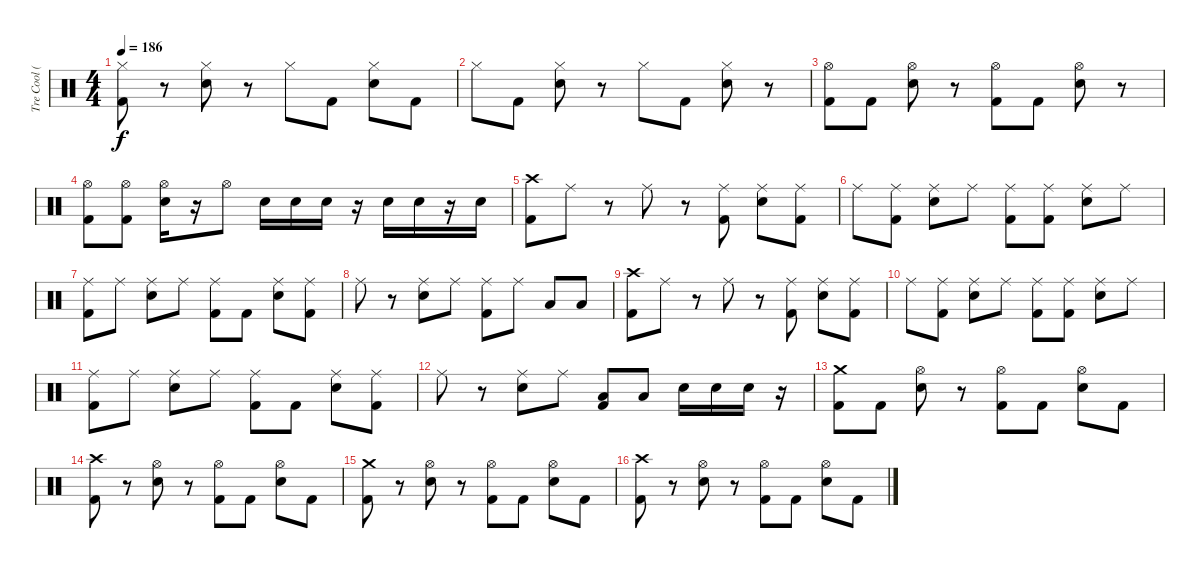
\track ("Tre Cool (Drums)" "Tre Cool (") {instrument percussion}
\staff {score}
\articulation defaults
\ts (4 4)
\tempo 186
\clef neutral
\ks c
("Hi-Hat (closed)" "Kick (hit) 2").8{dy f} r.8 ("Hi-Hat (closed)" "Snare (hit) 2").8 r.8 "Hi-Hat (closed)".8 "Kick (hit) 2".8 ("Hi-Hat (closed)" "Snare (hit) 2").8 "Kick (hit) 2".8 |
"Hi-Hat (closed)".8 "Kick (hit) 2".8 ("Hi-Hat (closed)" "Snare (hit) 2").8 r.8 "Hi-Hat (closed)".8 "Kick (hit) 2".8 ("Hi-Hat (closed)" "Snare (hit) 2").8 r.8 |
("Kick (hit) 2" "Hi-Hat (open)").8 "Kick (hit) 2".8 ("Snare (hit) 2" "Hi-Hat (open)").8 r.8 ("Kick (hit) 2" "Hi-Hat (open)").8 "Kick (hit) 2".8 ("Snare (hit) 2" "Hi-Hat (open)").8 r.8 |
("Kick (hit) 2" "Hi-Hat (open)").8 ("Kick (hit) 2" "Hi-Hat (open)").8 ("Snare (hit) 2" "Hi-Hat (open)").16 r.16 "Hi-Hat (open)".8 "Snare (hit) 2".16 "Snare (hit) 2".16 "Snare (hit) 2".16 r.16 "Snare (hit) 2".16 "Snare (hit) 2".16 r.16 "Snare (hit) 2".16 |
("Kick (hit) 2" "Crash high (hit)").8 "Ride (middle)".8 r.8 "Ride (middle)".8 r.8 ("Kick (hit) 2" "Ride (middle)").8 ("Snare (hit) 2" "Ride (middle)").8 ("Kick (hit) 2" "Ride (middle)").8 |
"Ride (middle)".8 ("Kick (hit) 2" "Ride (middle)").8 ("Snare (hit) 2" "Ride (middle)").8 "Ride (middle)".8 ("Kick (hit) 2" "Ride (middle)").8 ("Kick (hit) 2" "Ride (middle)").8 ("Snare (hit) 2" "Ride (middle)").8 "Ride (middle)".8 |
("Kick (hit) 2" "Ride (middle)").8 "Ride (middle)".8 ("Snare (hit) 2" "Ride (middle)").8 "Ride (middle)".8 ("Kick (hit) 2" "Ride (middle)").8 "Kick (hit) 2".8 ("Snare (hit) 2" "Ride (middle)").8 ("Kick (hit) 2" "Ride (middle)").8 |
"Ride (middle)".8 r.8 ("Snare (hit) 2" "Ride (middle)").8 "Ride (middle)".8 ("Kick (hit) 2" "Ride (middle)").8 "Ride (middle)".8 "Low Tom (hit)".8 "Low Tom (hit)".8 |
("Crash high (hit)" "Kick (hit) 2").8 "Ride (middle)".8 r.8 "Ride (middle)".8 r.8 ("Ride (middle)" "Kick (hit) 2").8 ("Ride (middle)" "Snare (hit) 2").8 ("Ride (middle)" "Kick (hit) 2").8 |
"Ride (middle)".8 ("Ride (middle)" "Kick (hit) 2").8 ("Ride (middle)" "Snare (hit) 2").8 "Ride (middle)".8 ("Ride (middle)" "Kick (hit) 2").8 ("Ride (middle)" "Kick (hit) 2").8 ("Ride (middle)" "Snare (hit) 2").8 "Ride (middle)".8 |
("Ride (middle)" "Kick (hit) 2").8 "Ride (middle)".8 ("Ride (middle)" "Snare (hit) 2").8 "Ride (middle)".8 ("Ride (middle)" "Kick (hit) 2").8 "Kick (hit) 2".8 ("Ride (middle)" "Snare (hit) 2").8 ("Ride (middle)" "Kick (hit) 2").8 |
"Ride (middle)".8 r.8 ("Ride (middle)" "Snare (hit) 2").8 "Ride (middle)".8 ("Kick (hit) 2" "Low Tom (hit)").8 "Low Tom (hit)".8 "Snare (hit) 2".16 "Snare (hit) 2".16 "Snare (hit) 2".16 r.16 |
("Crash medium (hit)" "Kick (hit) 2").8 "Kick (hit) 2".8 ("Hi-Hat (open)" "Snare (hit) 2").8 r.8 ("Hi-Hat (open)" "Kick (hit) 2").8 "Kick (hit) 2".8 ("Hi-Hat (open)" "Snare (hit) 2").8 "Kick (hit) 2".8 |
("Crash high (hit)" "Kick (hit) 2").8 r.8 ("Hi-Hat (open)" "Snare (hit) 2").8 r.8 ("Hi-Hat (open)" "Kick (hit) 2").8 "Kick (hit) 2".8 ("Hi-Hat (open)" "Snare (hit) 2").8 "Kick (hit) 2".8 |
("Kick (hit) 2" "Crash medium (hit)").8 r.8 ("Snare (hit) 2" "Hi-Hat (open)").8 r.8 ("Kick (hit) 2" "Hi-Hat (open)").8 "Kick (hit) 2".8 ("Snare (hit) 2" "Hi-Hat (open)").8 "Kick (hit) 2".8 |
("Kick (hit) 2" "Crash high (hit)").8 r.8 ("Snare (hit) 2" "Hi-Hat (open)").8 r.8 ("Kick (hit) 2" "Hi-Hat (open)").8 "Kick (hit) 2".8 ("Snare (hit) 2" "Hi-Hat (open)").8 "Kick (hit) 2".8
